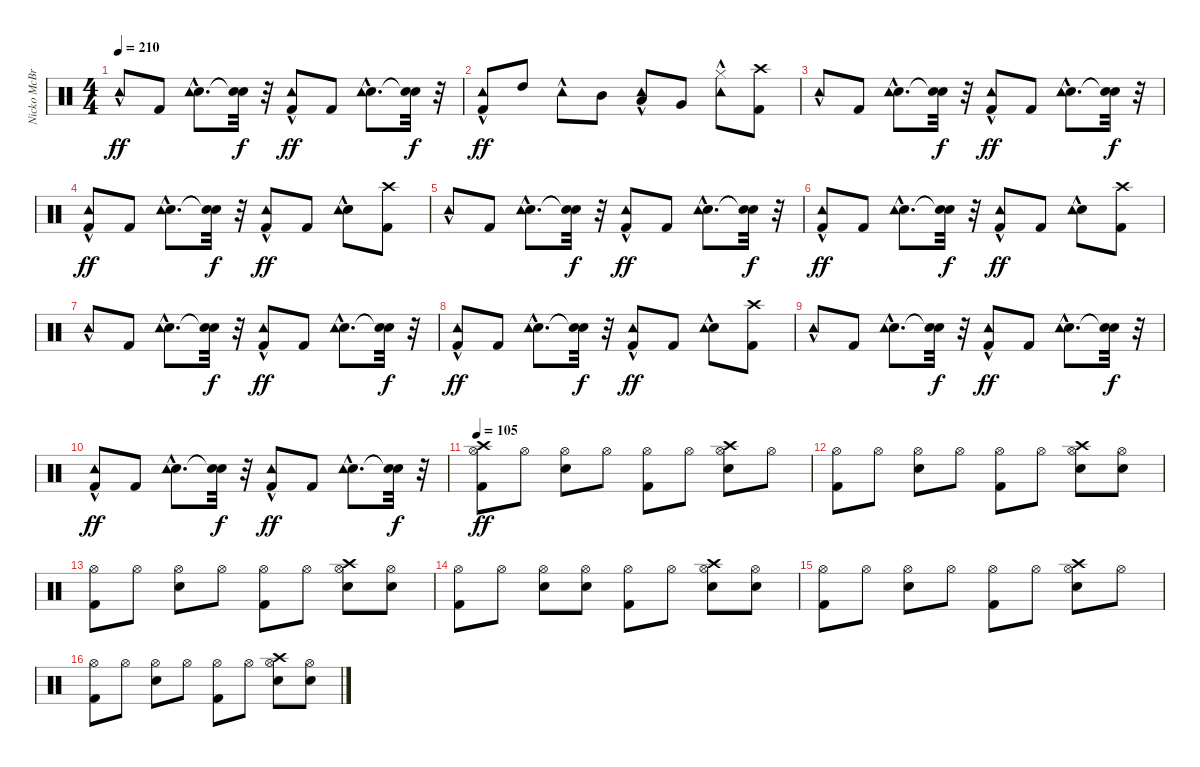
\track ("Nicko McBrain" "Nicko McBr") {instrument percussion}
\staff {score}
\articulation defaults
\ts (4 4)
\tempo 210
\clef neutral
\ks c "Tambourine (hit)"{hac}.8{dy ff} "Kick (hit) 2".8
("Snare (hit) 2"{hac} "Tambourine (hit)"{hac}).8{d} ("Snare (hit)"{t} "Snare (hit)"{t}).32{dy f} r.32 ("Kick (hit) 2" "Tambourine (hit)"{hac}).8{dy ff} "Kick (hit) 2".8 ("Snare (hit) 2"{hac} "Tambourine (hit)"{hac}).8{d} ("Snare (hit)"{t} "Snare (hit)"{t}).32{dy f} r.32 |
("Kick (hit) 2" "Tambourine (hit)"{hac}).8{dy ff} "High Tom (hit)".8 "Tambourine (hit)"{hac}.8 "Mid Tom (hit)".8 ("Low Tom (hit)" "Tambourine (hit)"{hac}).8 "Very Low Tom (hit)".8 ("Hi-Hat (closed)" "Tambourine (hit)"{hac}).8 ("Kick (hit) 2" "Crash high (hit)").8 |
"Tambourine (hit)"{hac}.8 "Kick (hit) 2".8 ("Snare (hit) 2"{hac} "Tambourine (hit)"{hac}).8{d} ("Snare (hit)"{t} "Snare (hit)"{t}).32{dy f} r.32 ("Kick (hit) 2" "Tambourine (hit)"{hac}).8{dy ff} "Kick (hit) 2".8 ("Snare (hit) 2"{hac} "Tambourine (hit)"{hac}).8{d} ("Snare (hit)"{t} "Snare (hit)"{t}).32{dy f} r.32 |
("Kick (hit) 2" "Tambourine (hit)"{hac}).8{dy ff} "Kick (hit) 2".8 ("Snare (hit) 2"{hac} "Tambourine (hit)"{hac}).8{d} ("Snare (hit)"{t} "Snare (hit)"{t}).32{dy f} r.32 ("Kick (hit) 2" "Tambourine (hit)"{hac}).8{dy ff} "Kick (hit) 2".8 ("Snare (hit) 2" "Tambourine (hit)"{hac}).8 ("Kick (hit) 2" "Crash high (hit)").8 |
"Tambourine (hit)"{hac}.8 "Kick (hit) 2".8 ("Snare (hit) 2"{hac} "Tambourine (hit)"{hac}).8{d} ("Snare (hit)"{t} "Snare (hit)"{t}).32{dy f} r.32 ("Kick (hit) 2" "Tambourine (hit)"{hac}).8{dy ff} "Kick (hit) 2".8 ("Snare (hit) 2"{hac} "Tambourine (hit)"{hac}).8{d} ("Snare (hit)"{t} "Snare (hit)"{t}).32{dy f} r.32 |
("Kick (hit) 2" "Tambourine (hit)"{hac}).8{dy ff} "Kick (hit) 2".8 ("Snare (hit) 2"{hac} "Tambourine (hit)"{hac}).8{d} ("Snare (hit)"{t} "Snare (hit)"{t}).32{dy f} r.32 ("Kick (hit) 2" "Tambourine (hit)"{hac}).8{dy ff} "Kick (hit) 2".8 ("Snare (hit) 2" "Tambourine (hit)"{hac}).8 ("Kick (hit) 2" "Crash high (hit)").8 |
"Tambourine (hit)"{hac}.8 "Kick (hit) 2".8 ("Snare (hit) 2"{hac} "Tambourine (hit)"{hac}).8{d} ("Snare (hit)"{t} "Snare (hit)"{t}).32{dy f} r.32 ("Kick (hit) 2" "Tambourine (hit)"{hac}).8{dy ff} "Kick (hit) 2".8 ("Snare (hit) 2"{hac} "Tambourine (hit)"{hac}).8{d} ("Snare (hit)"{t} "Snare (hit)"{t}).32{dy f} r.32 |
("Kick (hit) 2" "Tambourine (hit)"{hac}).8{dy ff} "Kick (hit) 2".8 ("Snare (hit) 2"{hac} "Tambourine (hit)"{hac}).8{d} ("Snare (hit)"{t} "Snare (hit)"{t}).32{dy f} r.32 ("Kick (hit) 2" "Tambourine (hit)"{hac}).8{dy ff} "Kick (hit) 2".8 ("Snare (hit) 2" "Tambourine (hit)"{hac}).8 ("Kick (hit) 2" "Crash high (hit)").8 |
"Tambourine (hit)"{hac}.8 "Kick (hit) 2".8 ("Snare (hit) 2"{hac} "Tambourine (hit)"{hac}).8{d} ("Snare (hit)"{t} "Snare (hit)"{t}).32{dy f} r.32 ("Kick (hit) 2" "Tambourine (hit)"{hac}).8{dy ff} "Kick (hit) 2".8 ("Snare (hit) 2"{hac} "Tambourine (hit)"{hac}).8{d} ("Snare (hit)"{t} "Snare (hit)"{t}).32{dy f} r.32 |
("Kick (hit) 2" "Tambourine (hit)"{hac}).8{dy ff} "Kick (hit) 2".8 ("Snare (hit) 2"{hac} "Tambourine (hit)"{hac}).8{d} ("Snare (hit)"{t} "Snare (hit)"{t}).32{dy f} r.32 ("Kick (hit) 2" "Tambourine (hit)"{hac}).8{dy ff} "Kick (hit) 2".8 ("Snare (hit) 2"{hac} "Tambourine (hit)"{hac}).8{d} ("Snare (hit)"{t} "Snare (hit)"{t}).32{dy f} r.32 |
\tempo 105
("Kick (hit) 2" "Hi-Hat (open)" "Crash high (hit)").8{dy ff} "Hi-Hat (open)".8 ("Snare (hit) 2" "Hi-Hat (open)").8 "Hi-Hat (open)".8 ("Kick (hit) 2" "Hi-Hat (open)").8 "Hi-Hat (open)".8 ("Snare (hit) 2" "Hi-Hat (open)" "Crash high (hit)").8 "Hi-Hat (open)".8 |
("Kick (hit) 2" "Hi-Hat (open)").8 "Hi-Hat (open)".8 ("Snare (hit) 2" "Hi-Hat (open)").8 "Hi-Hat (open)".8 ("Kick (hit) 2" "Hi-Hat (open)").8 "Hi-Hat (open)".8 ("Snare (hit) 2" "Hi-Hat (open)" "Crash high (hit)").8 ("Snare (hit) 2" "Hi-Hat (open)").8 |
("Kick (hit) 2" "Hi-Hat (open)").8 "Hi-Hat (open)".8 ("Snare (hit) 2" "Hi-Hat (open)").8 "Hi-Hat (open)".8 ("Kick (hit) 2" "Hi-Hat (open)").8 "Hi-Hat (open)".8 ("Snare (hit) 2" "Hi-Hat (open)" "Crash high (hit)").8 ("Snare (hit) 2" "Hi-Hat (open)").8 |
("Kick (hit) 2" "Hi-Hat (open)").8 "Hi-Hat (open)".8 ("Snare (hit) 2" "Hi-Hat (open)").8 ("Snare (hit) 2" "Hi-Hat (open)").8 ("Kick (hit) 2" "Hi-Hat (open)").8 "Hi-Hat (open)".8 ("Snare (hit) 2" "Hi-Hat (open)" "Crash high (hit)").8 ("Snare (hit) 2" "Hi-Hat (open)").8 |
("Kick (hit) 2" "Hi-Hat (open)").8 "Hi-Hat (open)".8 ("Snare (hit) 2" "Hi-Hat (open)").8 "Hi-Hat (open)".8 ("Kick (hit) 2" "Hi-Hat (open)").8 "Hi-Hat (open)".8 ("Snare (hit) 2" "Hi-Hat (open)" "Crash high (hit)").8 "Hi-Hat (open)".8 |
("Kick (hit) 2" "Hi-Hat (open)").8 "Hi-Hat (open)".8 ("Snare (hit) 2" "Hi-Hat (open)").8 "Hi-Hat (open)".8 ("Kick (hit) 2" "Hi-Hat (open)").8 "Hi-Hat (open)".8 ("Snare (hit) 2" "Hi-Hat (open)" "Crash high (hit)").8 ("Snare (hit) 2" "Hi-Hat (open)").8
